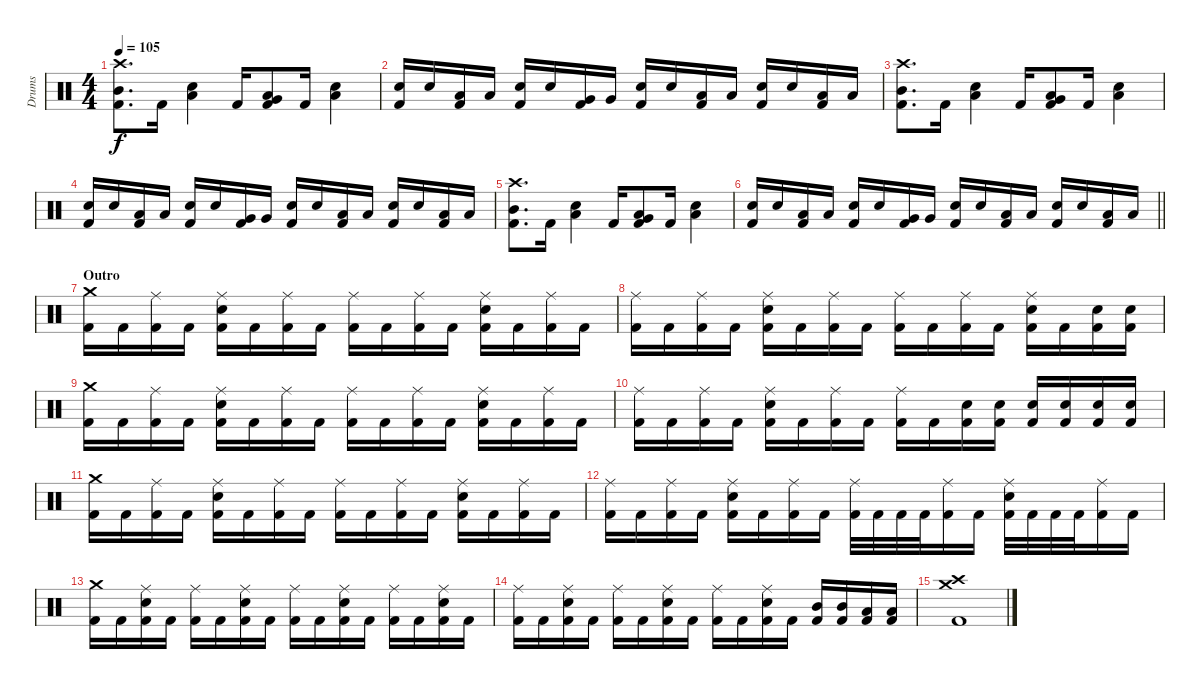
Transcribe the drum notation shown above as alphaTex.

\track ("Drums" "Drums") {instrument percussion}
\staff {score}
\articulation defaults
\ts (4 4)
\tempo 105
\clef neutral
\ks c
("Kick (hit) 2" "Mid Tom (hit)" "Crash high (hit)").8{d dy f} "Kick (hit) 2".16 ("Snare (hit) 2" "Low Tom (hit)").4 "Kick (hit) 2".16 ("Kick (hit) 2" "Very Low Tom (hit)" "Low Floor Tom (hit)").8 "Kick (hit) 2".16 ("Snare (hit) 2" "Low Tom (hit)").4 |
("Kick (hit) 2" "Snare (hit) 2").16 "Snare (hit) 2".16 ("Kick (hit) 2" "Low Tom (hit)").16 "Low Tom (hit)".16 ("Kick (hit) 2" "Snare (hit) 2").16 "Snare (hit) 2".16 ("Kick (hit) 2" "Very Low Tom (hit)").16 "Very Low Tom (hit)".16 ("Kick (hit) 2" "Snare (hit) 2").16 "Snare (hit) 2".16 ("Kick (hit) 2" "Low Tom (hit)").16 "Low Tom (hit)".16 ("Kick (hit) 2" "Snare (hit) 2").16 "Snare (hit) 2".16 ("Kick (hit) 2" "Low Floor Tom (hit)").16 "Low Floor Tom (hit)".16 |
("Kick (hit) 2" "Mid Tom (hit)" "Crash high (hit)").8{d} "Kick (hit) 2".16 ("Snare (hit) 2" "Low Tom (hit)").4 "Kick (hit) 2".16 ("Kick (hit) 2" "Very Low Tom (hit)" "Low Floor Tom (hit)").8 "Kick (hit) 2".16 ("Snare (hit) 2" "Low Tom (hit)").4 |
("Kick (hit) 2" "Snare (hit) 2").16 "Snare (hit) 2".16 ("Kick (hit) 2" "Low Tom (hit)").16 "Low Tom (hit)".16 ("Kick (hit) 2" "Snare (hit) 2").16 "Snare (hit) 2".16 ("Kick (hit) 2" "Very Low Tom (hit)").16 "Very Low Tom (hit)".16 ("Kick (hit) 2" "Snare (hit) 2").16 "Snare (hit) 2".16 ("Kick (hit) 2" "Low Tom (hit)").16 "Low Tom (hit)".16 ("Kick (hit) 2" "Snare (hit) 2").16 "Snare (hit) 2".16 ("Kick (hit) 2" "Low Floor Tom (hit)").16 "Low Floor Tom (hit)".16 |
("Kick (hit) 2" "Mid Tom (hit)" "Crash high (hit)").8{d} "Kick (hit) 2".16 ("Snare (hit) 2" "Low Tom (hit)").4 "Kick (hit) 2".16 ("Kick (hit) 2" "Very Low Tom (hit)" "Low Floor Tom (hit)").8 "Kick (hit) 2".16 ("Snare (hit) 2" "Low Tom (hit)").4 |
\barLineRight lightlight
("Kick (hit) 2" "Snare (hit) 2").16 "Snare (hit) 2".16 ("Kick (hit) 2" "Low Tom (hit)").16 "Low Tom (hit)".16 ("Kick (hit) 2" "Snare (hit) 2").16 "Snare (hit) 2".16 ("Kick (hit) 2" "Very Low Tom (hit)").16 "Very Low Tom (hit)".16 ("Kick (hit) 2" "Snare (hit) 2").16 "Snare (hit) 2".16 ("Kick (hit) 2" "Low Tom (hit)").16 "Low Tom (hit)".16 ("Kick (hit) 2" "Snare (hit) 2").16 "Snare (hit) 2".16 ("Kick (hit) 2" "Low Floor Tom (hit)").16 "Low Floor Tom (hit)".16 |
\section ("" "Outro")
("Kick (hit) 2" "Crash medium (hit)").16 "Kick (hit) 2".16 ("Kick (hit) 2" "Ride (middle)").16 "Kick (hit) 2".16 ("Kick (hit) 2" "Snare (hit) 2" "Ride (middle)").16 "Kick (hit) 2".16 ("Kick (hit) 2" "Ride (middle)").16 "Kick (hit) 2".16 ("Kick (hit) 2" "Ride (middle)").16 "Kick (hit) 2".16 ("Kick (hit) 2" "Ride (middle)").16 "Kick (hit) 2".16 ("Kick (hit) 2" "Snare (hit) 2" "Ride (middle)").16 "Kick (hit) 2".16 ("Kick (hit) 2" "Ride (middle)").16 "Kick (hit) 2".16 |
("Kick (hit) 2" "Ride (middle)").16 "Kick (hit) 2".16 ("Kick (hit) 2" "Ride (middle)").16 "Kick (hit) 2".16 ("Kick (hit) 2" "Snare (hit) 2" "Ride (middle)").16 "Kick (hit) 2".16 ("Kick (hit) 2" "Ride (middle)").16 "Kick (hit) 2".16 ("Kick (hit) 2" "Ride (middle)").16 "Kick (hit) 2".16 ("Kick (hit) 2" "Ride (middle)").16 "Kick (hit) 2".16 ("Kick (hit) 2" "Snare (hit) 2" "Ride (middle)").16 "Kick (hit) 2".16 ("Kick (hit) 2" "Snare (hit) 2").16 ("Kick (hit) 2" "Snare (hit) 2").16 |
("Kick (hit) 2" "Crash medium (hit)").16 "Kick (hit) 2".16 ("Kick (hit) 2" "Ride (middle)").16 "Kick (hit) 2".16 ("Kick (hit) 2" "Snare (hit) 2" "Ride (middle)").16 "Kick (hit) 2".16 ("Kick (hit) 2" "Ride (middle)").16 "Kick (hit) 2".16 ("Kick (hit) 2" "Ride (middle)").16 "Kick (hit) 2".16 ("Kick (hit) 2" "Ride (middle)").16 "Kick (hit) 2".16 ("Kick (hit) 2" "Snare (hit) 2" "Ride (middle)").16 "Kick (hit) 2".16 ("Kick (hit) 2" "Ride (middle)").16 "Kick (hit) 2".16 |
("Kick (hit) 2" "Ride (middle)").16 "Kick (hit) 2".16 ("Kick (hit) 2" "Ride (middle)").16 "Kick (hit) 2".16 ("Kick (hit) 2" "Snare (hit) 2" "Ride (middle)").16 "Kick (hit) 2".16 ("Kick (hit) 2" "Ride (middle)").16 "Kick (hit) 2".16 ("Kick (hit) 2" "Ride (middle)").16 "Kick (hit) 2".16 ("Kick (hit) 2" "Snare (hit) 2").16 ("Kick (hit) 2" "Snare (hit) 2").16 ("Kick (hit) 2" "Snare (hit) 2").16 ("Kick (hit) 2" "Snare (hit) 2").16 ("Kick (hit) 2" "Snare (hit) 2").16 ("Kick (hit) 2" "Snare (hit) 2").16 |
("Kick (hit) 2" "Crash medium (hit)").16 "Kick (hit) 2".16 ("Kick (hit) 2" "Ride (middle)").16 "Kick (hit) 2".16 ("Kick (hit) 2" "Snare (hit) 2" "Ride (middle)").16 "Kick (hit) 2".16 ("Kick (hit) 2" "Ride (middle)").16 "Kick (hit) 2".16 ("Kick (hit) 2" "Ride (middle)").16 "Kick (hit) 2".16 ("Kick (hit) 2" "Ride (middle)").16 "Kick (hit) 2".16 ("Kick (hit) 2" "Snare (hit) 2" "Ride (middle)").16 "Kick (hit) 2".16 ("Kick (hit) 2" "Ride (middle)").16 "Kick (hit) 2".16 |
("Kick (hit) 2" "Ride (middle)").16 "Kick (hit) 2".16 ("Kick (hit) 2" "Ride (middle)").16 "Kick (hit) 2".16 ("Kick (hit) 2" "Snare (hit) 2" "Ride (middle)").16 "Kick (hit) 2".16 ("Kick (hit) 2" "Ride (middle)").16 "Kick (hit) 2".16 ("Kick (hit) 2" "Ride (middle)").32 "Kick (hit) 2".32 "Kick (hit) 2".32 "Kick (hit) 2".32 ("Kick (hit) 2" "Ride (middle)").16 "Kick (hit) 2".16 ("Kick (hit) 2" "Snare (hit) 2" "Ride (middle)").32 "Kick (hit) 2".32 "Kick (hit) 2".32 "Kick (hit) 2".32 ("Kick (hit) 2" "Ride (middle)").16 "Kick (hit) 2".16 |
("Kick (hit) 2" "Crash medium (hit)").16 "Kick (hit) 2".16 ("Kick (hit) 2" "Snare (hit) 2" "Ride (middle)").16 "Kick (hit) 2".16 ("Kick (hit) 2" "Ride (middle)").16 "Kick (hit) 2".16 ("Kick (hit) 2" "Snare (hit) 2" "Ride (middle)").16 "Kick (hit) 2".16 ("Kick (hit) 2" "Ride (middle)").16 "Kick (hit) 2".16 ("Kick (hit) 2" "Snare (hit) 2" "Ride (middle)").16 "Kick (hit) 2".16 ("Kick (hit) 2" "Ride (middle)").16 "Kick (hit) 2".16 ("Kick (hit) 2" "Snare (hit) 2" "Ride (middle)").16 "Kick (hit) 2".16 |
("Kick (hit) 2" "Ride (middle)").16 "Kick (hit) 2".16 ("Kick (hit) 2" "Snare (hit) 2" "Ride (middle)").16 "Kick (hit) 2".16 ("Kick (hit) 2" "Ride (middle)").16 "Kick (hit) 2".16 ("Kick (hit) 2" "Snare (hit) 2" "Ride (middle)").16 "Kick (hit) 2".16 ("Kick (hit) 2" "Ride (middle)").16 "Kick (hit) 2".16 ("Kick (hit) 2" "Snare (hit) 2" "Ride (middle)").16 "Kick (hit) 2".16 ("Kick (hit) 2" "Mid Tom (hit)").16 ("Kick (hit) 2" "Mid Tom (hit)").16 ("Kick (hit) 2" "Low Tom (hit)").16 ("Kick (hit) 2" "Low Tom (hit)").16 |
("Kick (hit) 2" "Crash high (hit)" "Crash medium (hit)").1
